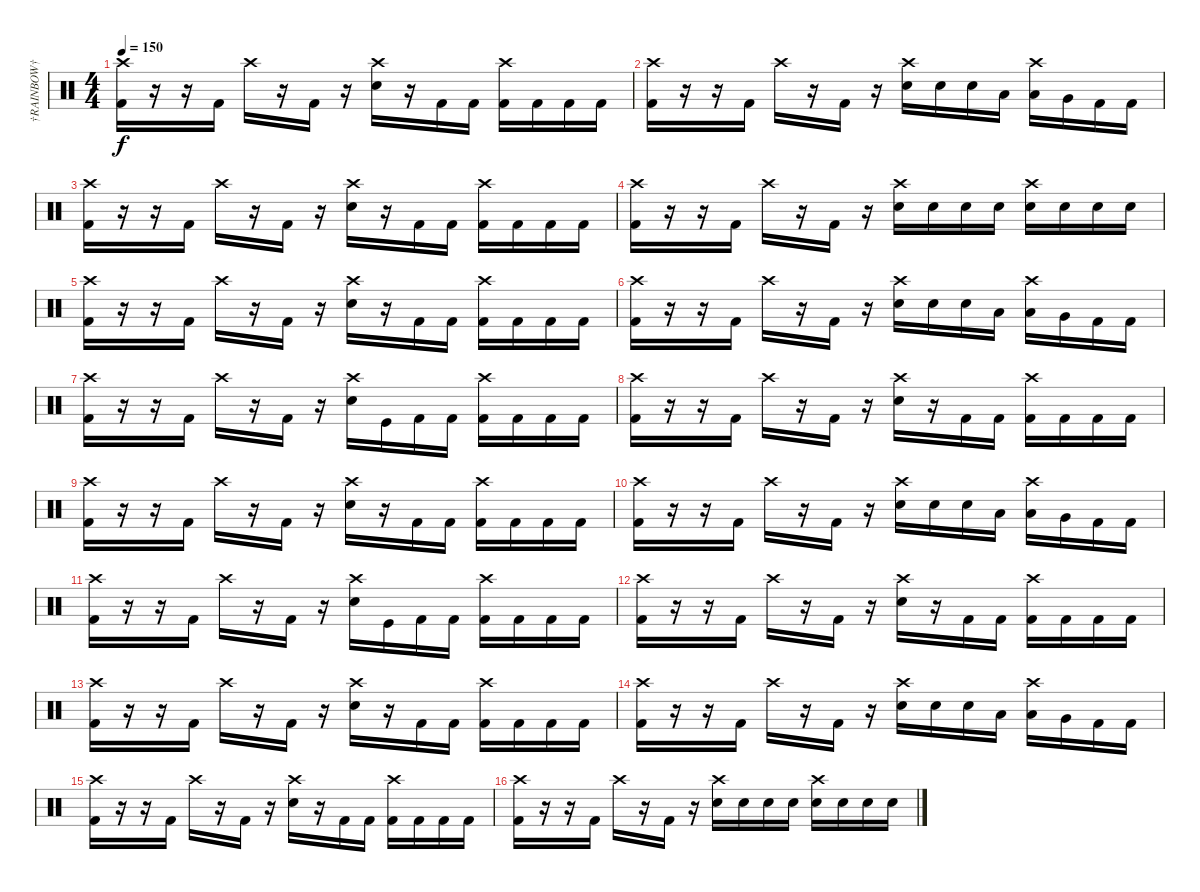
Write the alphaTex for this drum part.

\track ("†RAINBOW†" "†RAINBOW†") {instrument percussion}
\staff {score}
\articulation defaults
\ts (4 4)
\tempo 150
\clef neutral
\ks c
("Crash high (hit)" "Kick (hit) 2").16{dy f} r.16 r.16 "Kick (hit) 2".16 "Crash high (hit)".16 r.16 "Kick (hit) 2".16 r.16 ("Crash high (hit)" "Electric Snare (hit)").16 r.16 "Kick (hit) 2".16 "Kick (hit) 2".16 ("Crash high (hit)" "Kick (hit) 2").16 "Kick (hit) 2".16 "Kick (hit) 2".16 "Kick (hit) 2".16 |
("Crash high (hit)" "Kick (hit) 2").16 r.16 r.16 "Kick (hit) 2".16 "Crash high (hit)".16 r.16 "Kick (hit) 2".16 r.16 ("Crash high (hit)" "Electric Snare (hit)").16 "Electric Snare (hit)".16 "Electric Snare (hit)".16 "Low Tom (hit)".16 ("Crash high (hit)" "Low Tom (hit)").16 "Very Low Tom (hit)".16 "Kick (hit) 2".16 "Kick (hit) 2".16 |
("Crash high (hit)" "Kick (hit) 2").16 r.16 r.16 "Kick (hit) 2".16 "Crash high (hit)".16 r.16 "Kick (hit) 2".16 r.16 ("Crash high (hit)" "Electric Snare (hit)").16 r.16 "Kick (hit) 2".16 "Kick (hit) 2".16 ("Crash high (hit)" "Kick (hit) 2").16 "Kick (hit) 2".16 "Kick (hit) 2".16 "Kick (hit) 2".16 |
("Crash high (hit)" "Kick (hit) 2").16 r.16 r.16 "Kick (hit) 2".16 "Crash high (hit)".16 r.16 "Kick (hit) 2".16 r.16 ("Crash high (hit)" "Electric Snare (hit)").16 "Electric Snare (hit)".16 "Electric Snare (hit)".16 "Electric Snare (hit)".16 ("Crash high (hit)" "Electric Snare (hit)").16 "Electric Snare (hit)".16 "Electric Snare (hit)".16 "Electric Snare (hit)".16 |
("Crash high (hit)" "Kick (hit) 2").16 r.16 r.16 "Kick (hit) 2".16 "Crash high (hit)".16 r.16 "Kick (hit) 2".16 r.16 ("Crash high (hit)" "Electric Snare (hit)").16 r.16 "Kick (hit) 2".16 "Kick (hit) 2".16 ("Crash high (hit)" "Kick (hit) 2").16 "Kick (hit) 2".16 "Kick (hit) 2".16 "Kick (hit) 2".16 |
("Crash high (hit)" "Kick (hit) 2").16 r.16 r.16 "Kick (hit) 2".16 "Crash high (hit)".16 r.16 "Kick (hit) 2".16 r.16 ("Crash high (hit)" "Electric Snare (hit)").16 "Electric Snare (hit)".16 "Electric Snare (hit)".16 "Low Tom (hit)".16 ("Crash high (hit)" "Low Tom (hit)").16 "Very Low Tom (hit)".16 "Kick (hit) 2".16 "Kick (hit) 2".16 |
("Crash high (hit)" "Kick (hit) 2").16 r.16 r.16 "Kick (hit) 2".16 "Crash high (hit)".16 r.16 "Kick (hit) 2".16 r.16 ("Crash high (hit)" "Electric Snare (hit)").16 "Kick (hit)".16 "Kick (hit) 2".16 "Kick (hit) 2".16 ("Crash high (hit)" "Kick (hit) 2").16 "Kick (hit) 2".16 "Kick (hit) 2".16 "Kick (hit) 2".16 |
("Crash high (hit)" "Kick (hit) 2").16 r.16 r.16 "Kick (hit) 2".16 "Crash high (hit)".16 r.16 "Kick (hit) 2".16 r.16 ("Crash high (hit)" "Electric Snare (hit)").16 r.16 "Kick (hit) 2".16 "Kick (hit) 2".16 ("Crash high (hit)" "Kick (hit) 2").16 "Kick (hit) 2".16 "Kick (hit) 2".16 "Kick (hit) 2".16 |
("Crash high (hit)" "Kick (hit) 2").16 r.16 r.16 "Kick (hit) 2".16 "Crash high (hit)".16 r.16 "Kick (hit) 2".16 r.16 ("Crash high (hit)" "Electric Snare (hit)").16 r.16 "Kick (hit) 2".16 "Kick (hit) 2".16 ("Crash high (hit)" "Kick (hit) 2").16 "Kick (hit) 2".16 "Kick (hit) 2".16 "Kick (hit) 2".16 |
("Crash high (hit)" "Kick (hit) 2").16 r.16 r.16 "Kick (hit) 2".16 "Crash high (hit)".16 r.16 "Kick (hit) 2".16 r.16 ("Crash high (hit)" "Electric Snare (hit)").16 "Electric Snare (hit)".16 "Electric Snare (hit)".16 "Low Tom (hit)".16 ("Crash high (hit)" "Low Tom (hit)").16 "Very Low Tom (hit)".16 "Kick (hit) 2".16 "Kick (hit) 2".16 |
("Crash high (hit)" "Kick (hit) 2").16 r.16 r.16 "Kick (hit) 2".16 "Crash high (hit)".16 r.16 "Kick (hit) 2".16 r.16 ("Crash high (hit)" "Electric Snare (hit)").16 "Kick (hit)".16 "Kick (hit) 2".16 "Kick (hit) 2".16 ("Crash high (hit)" "Kick (hit) 2").16 "Kick (hit) 2".16 "Kick (hit) 2".16 "Kick (hit) 2".16 |
("Crash high (hit)" "Kick (hit) 2").16 r.16 r.16 "Kick (hit) 2".16 "Crash high (hit)".16 r.16 "Kick (hit) 2".16 r.16 ("Crash high (hit)" "Electric Snare (hit)").16 r.16 "Kick (hit) 2".16 "Kick (hit) 2".16 ("Crash high (hit)" "Kick (hit) 2").16 "Kick (hit) 2".16 "Kick (hit) 2".16 "Kick (hit) 2".16 |
("Crash high (hit)" "Kick (hit) 2").16 r.16 r.16 "Kick (hit) 2".16 "Crash high (hit)".16 r.16 "Kick (hit) 2".16 r.16 ("Crash high (hit)" "Electric Snare (hit)").16 r.16 "Kick (hit) 2".16 "Kick (hit) 2".16 ("Crash high (hit)" "Kick (hit) 2").16 "Kick (hit) 2".16 "Kick (hit) 2".16 "Kick (hit) 2".16 |
("Crash high (hit)" "Kick (hit) 2").16 r.16 r.16 "Kick (hit) 2".16 "Crash high (hit)".16 r.16 "Kick (hit) 2".16 r.16 ("Crash high (hit)" "Electric Snare (hit)").16 "Electric Snare (hit)".16 "Electric Snare (hit)".16 "Low Tom (hit)".16 ("Crash high (hit)" "Low Tom (hit)").16 "Very Low Tom (hit)".16 "Kick (hit) 2".16 "Kick (hit) 2".16 |
("Crash high (hit)" "Kick (hit) 2").16 r.16 r.16 "Kick (hit) 2".16 "Crash high (hit)".16 r.16 "Kick (hit) 2".16 r.16 ("Crash high (hit)" "Electric Snare (hit)").16 r.16 "Kick (hit) 2".16 "Kick (hit) 2".16 ("Crash high (hit)" "Kick (hit) 2").16 "Kick (hit) 2".16 "Kick (hit) 2".16 "Kick (hit) 2".16 |
("Crash high (hit)" "Kick (hit) 2").16 r.16 r.16 "Kick (hit) 2".16 "Crash high (hit)".16 r.16 "Kick (hit) 2".16 r.16 ("Crash high (hit)" "Electric Snare (hit)").16 "Electric Snare (hit)".16 "Electric Snare (hit)".16 "Electric Snare (hit)".16 ("Crash high (hit)" "Electric Snare (hit)").16 "Electric Snare (hit)".16 "Electric Snare (hit)".16 "Electric Snare (hit)".16
